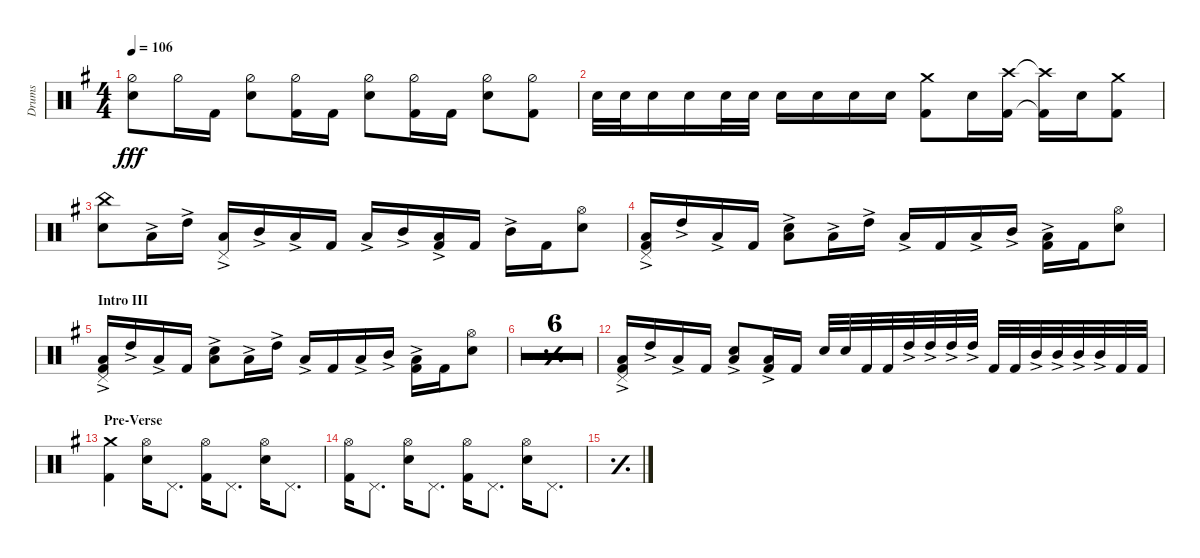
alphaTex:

\defaultSystemsLayout 4
\bracketExtendMode groupsimilarinstruments
\otherSystemsTrackNameOrientation horizontal
\track ("Drumkit" "Drums") {multiBarRest instrument percussion}
\staff {score}
\articulation defaults
\ts (4 4)
\tempo 106
\clef neutral
\ks g
("Snare (hit) 2"{acc forcenatural} "Hi-Hat (half)"{acc forcenatural}).8{dy fff} "Hi-Hat (half)"{acc forcenatural}.16 "Kick (hit) 2"{acc forcenatural}.16 ("Snare (hit) 2"{acc forcenatural} "Hi-Hat (half)"{acc forcenatural}).8 ("Hi-Hat (half)"{acc forcenatural} "Kick (hit) 2"{acc forcenatural}).16 "Kick (hit) 2"{acc forcenatural}.16 ("Snare (hit) 2"{acc forcenatural} "Hi-Hat (half)"{acc forcenatural}).8 ("Hi-Hat (half)"{acc forcenatural} "Kick (hit) 2"{acc forcenatural}).16 "Kick (hit) 2"{acc forcenatural}.16 ("Snare (hit) 2"{acc forcenatural} "Hi-Hat (half)"{acc forcenatural}).8 ("Hi-Hat (half)"{acc forcenatural} "Kick (hit) 2"{acc forcenatural}).8 |
"Snare (hit) 2"{acc forcenatural}.32 "Snare (hit) 2"{acc forcenatural}.32 "Snare (hit) 2"{acc forcenatural}.16 "Snare (hit) 2"{acc forcenatural}.16 "Snare (hit) 2"{acc forcenatural}.32 "Snare (hit) 2"{acc forcenatural}.32 "Snare (hit) 2"{acc forcenatural}.16 "Snare (hit) 2"{acc forcenatural}.16 "Snare (hit) 2"{acc forcenatural}.16 "Snare (hit) 2"{acc forcenatural}.16 ("Kick (hit) 2"{acc forcenatural} "Crash medium (hit)"{acc forcenatural}).8 "Snare (hit) 2"{acc forcenatural}.16 ("Kick (hit) 2"{acc forcenatural} "Crash high (hit)"{acc forcenatural}).16 ("Kick (hit) 2"{t acc forcenatural} "Crash high (hit)"{t acc forcenatural}).16 "Snare (hit) 2"{acc forcenatural}.16 ("Kick (hit) 2"{acc forcenatural} "Crash medium (hit)"{acc forcenatural}).8 |
("China (hit)"{acc forcenatural} "Snare (hit) 2"{acc forcenatural}).8 "Low Tom (hit)"{ac acc forcenatural}.16 "High Tom (hit)"{ac acc forcenatural}.16 ("Low Tom (hit)"{ac acc forcenatural} "Pedal Hi-Hat (hit)"{acc forcenatural}).16 "Mid Tom (hit)"{ac acc forcenatural}.16 "Low Tom (hit)"{ac acc forcenatural}.16 "Kick (hit) 2"{acc forcenatural}.16 "Low Tom (hit)"{ac acc forcenatural}.16 "Mid Tom (hit)"{ac acc forcenatural}.16 ("Low Tom (hit)"{ac acc forcenatural} "Kick (hit) 2"{acc forcenatural}).16 "Kick (hit) 2"{acc forcenatural}.16 "Mid Tom (hit)"{ac acc forcenatural}.16 "Kick (hit) 2"{acc forcenatural}.16 ("Snare (hit) 2"{acc forcenatural} "Hi-Hat (open)"{acc forcenatural}).8 |
("Kick (hit) 2"{acc forcenatural} "Low Tom (hit)"{ac acc forcenatural} "Pedal Hi-Hat (hit)"{acc forcenatural}).16 "High Tom (hit)"{ac acc forcenatural}.16 "Low Tom (hit)"{ac acc forcenatural}.16 "Kick (hit) 2"{acc forcenatural}.16 ("Snare (hit) 2"{acc forcenatural} "Low Tom (hit)"{ac acc forcenatural}).8 "Low Tom (hit)"{ac acc forcenatural}.16 "High Tom (hit)"{ac acc forcenatural}.16 "Low Tom (hit)"{ac acc forcenatural}.16 "Kick (hit) 2"{acc forcenatural}.16 "Low Tom (hit)"{ac acc forcenatural}.16 "Mid Tom (hit)"{ac acc forcenatural}.16 ("Kick (hit) 2"{acc forcenatural} "Low Tom (hit)"{ac acc forcenatural}).16 "Kick (hit) 2"{acc forcenatural}.16 ("Snare (hit) 2"{acc forcenatural} "Hi-Hat (open)"{acc forcenatural}).8 |
\section ("" "Intro III")
("Kick (hit) 2"{acc forcenatural} "Low Tom (hit)"{ac acc forcenatural} "Pedal Hi-Hat (hit)"{acc forcenatural}).16 "High Tom (hit)"{ac acc forcenatural}.16 "Low Tom (hit)"{ac acc forcenatural}.16 "Kick (hit) 2"{acc forcenatural}.16 ("Snare (hit) 2"{acc forcenatural} "Low Tom (hit)"{ac acc forcenatural}).8 "Low Tom (hit)"{ac acc forcenatural}.16 "High Tom (hit)"{ac acc forcenatural}.16 "Low Tom (hit)"{ac acc forcenatural}.16 "Kick (hit) 2"{acc forcenatural}.16 "Low Tom (hit)"{ac acc forcenatural}.16 "Mid Tom (hit)"{ac acc forcenatural}.16 ("Kick (hit) 2"{acc forcenatural} "Low Tom (hit)"{ac acc forcenatural}).16 "Kick (hit) 2"{acc forcenatural}.16 ("Snare (hit) 2"{acc forcenatural} "Hi-Hat (open)"{acc forcenatural}).8 |
\simile simple
|
|
|
|
|
|
\simile none
("Kick (hit) 2"{acc forcenatural} "Low Tom (hit)"{ac acc forcenatural} "Pedal Hi-Hat (hit)"{acc forcenatural}).16 "High Tom (hit)"{ac acc forcenatural}.16 "Low Tom (hit)"{ac acc forcenatural}.16 "Kick (hit) 2"{acc forcenatural}.16 ("Snare (hit) 2"{acc forcenatural} "Low Tom (hit)"{ac acc forcenatural}).8 ("Kick (hit) 2"{acc forcenatural} "Low Tom (hit)"{ac acc forcenatural}).16 "Kick (hit) 2"{acc forcenatural}.16 "Snare (hit) 2"{acc forcenatural}.32 "Snare (hit) 2"{acc forcenatural}.32 "Kick (hit) 2"{acc forcenatural}.32 "Kick (hit) 2"{acc forcenatural}.32 "High Tom (hit)"{ac acc forcenatural}.32 "High Tom (hit)"{ac acc forcenatural}.32 "High Tom (hit)"{ac acc forcenatural}.32 "High Tom (hit)"{ac acc forcenatural}.32 "Kick (hit) 2"{acc forcenatural}.32 "Kick (hit) 2"{acc forcenatural}.32 "Mid Tom (hit)"{ac acc forcenatural}.32 "Mid Tom (hit)"{ac acc forcenatural}.32 "Mid Tom (hit)"{ac acc forcenatural}.32 "Mid Tom (hit)"{ac acc forcenatural}.32 "Kick (hit) 2"{acc forcenatural}.32 "Kick (hit) 2"{acc forcenatural}.32 |
\section ("" "Pre-Verse")
("Kick (hit) 2"{acc forcenatural} "Crash medium (hit)"{acc forcenatural}).4 ("Hi-Hat (open)"{acc forcenatural} "Snare (hit) 2"{acc forcenatural}).16 "Pedal Hi-Hat (hit)"{acc forcenatural}.8{d} ("Hi-Hat (open)"{acc forcenatural} "Kick (hit) 2"{acc forcenatural}).16 "Pedal Hi-Hat (hit)"{acc forcenatural}.8{d} ("Hi-Hat (open)"{acc forcenatural} "Snare (hit) 2"{acc forcenatural}).16 "Pedal Hi-Hat (hit)"{acc forcenatural}.8{d} |
("Hi-Hat (open)"{acc forcenatural} "Kick (hit) 2"{acc forcenatural}).16 "Pedal Hi-Hat (hit)"{acc forcenatural}.8{d} ("Hi-Hat (open)"{acc forcenatural} "Snare (hit) 2"{acc forcenatural}).16 "Pedal Hi-Hat (hit)"{acc forcenatural}.8{d} ("Hi-Hat (open)"{acc forcenatural} "Kick (hit) 2"{acc forcenatural}).16 "Pedal Hi-Hat (hit)"{acc forcenatural}.8{d} ("Hi-Hat (open)"{acc forcenatural} "Snare (hit) 2"{acc forcenatural}).16 "Pedal Hi-Hat (hit)"{acc forcenatural}.8{d} |
\simile simple
